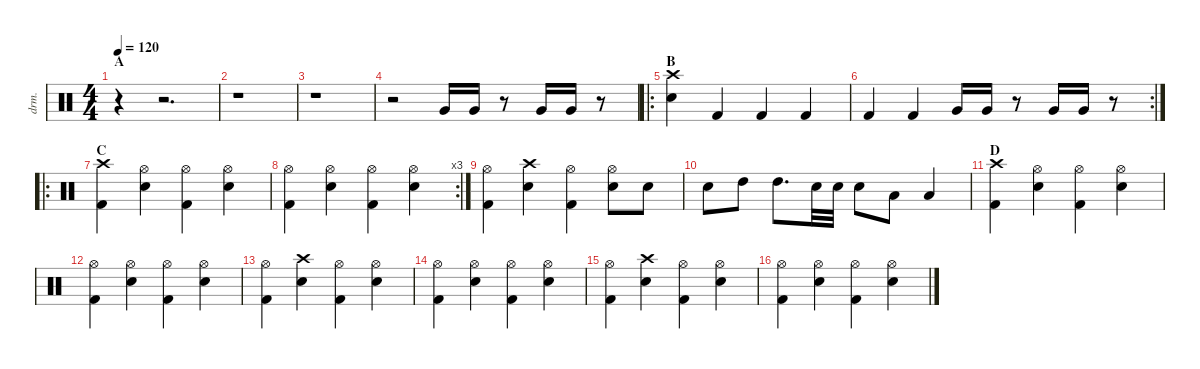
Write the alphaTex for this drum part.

\defaultSystemsLayout 4
\hideDynamics
\bracketExtendMode nobrackets
\track ("Drums" "drm.") {instrument percussion}
\staff {score}
\articulation defaults
\ts (4 4)
\section ("" "A")
\tempo 120
\clef neutral
\ks c
r.4{dy f} r.2{d} |
r.1 |
r.1 |
r.2 "Very Low Tom (hit)".16 "Very Low Tom (hit)".16 r.8 "Very Low Tom (hit)".16 "Very Low Tom (hit)".16 r.8 |
\ro
\section ("" "B")
("Crash high (hit)" "Snare (hit) 2").4 "Kick (hit) 2".4 "Kick (hit) 2".4 "Kick (hit) 2".4 |
\rc 2 "Kick (hit) 2".4 "Kick (hit) 2".4 "Very Low Tom (hit)".16 "Very Low Tom (hit)".16
r.8 "Very Low Tom (hit)".16 "Very Low Tom (hit)".16 r.8 |
\ro
\section ("" "C")
("Crash high (hit)" "Kick (hit) 2").4 ("Hi-Hat (open)" "Snare (hit) 2").4 ("Hi-Hat (open)" "Kick (hit) 2").4 ("Hi-Hat (open)" "Snare (hit) 2").4 |
\rc 3
("Hi-Hat (open)" "Kick (hit) 2").4 ("Hi-Hat (open)" "Snare (hit) 2").4 ("Hi-Hat (open)" "Kick (hit) 2").4 ("Hi-Hat (open)" "Snare (hit) 2").4 |
("Hi-Hat (open)" "Kick (hit) 2").4 ("Crash high (hit)" "Snare (hit) 2").4 ("Hi-Hat (open)" "Kick (hit) 2").4 ("Hi-Hat (open)" "Snare (hit) 2").8 "Snare (hit) 2".8 |
"Snare (hit) 2".8 "High Tom (hit)".8 "High Tom (hit)".8{d} "Snare (hit) 2".32 "Snare (hit) 2".32 "Snare (hit) 2".8 "Low Floor Tom (hit)".8 "Low Floor Tom (hit)".4 |
\section ("" "D")
("Crash high (hit)" "Kick (hit) 2").4 ("Hi-Hat (open)" "Snare (hit) 2").4 ("Hi-Hat (open)" "Kick (hit) 2").4 ("Hi-Hat (open)" "Snare (hit) 2").4 |
("Hi-Hat (open)" "Kick (hit) 2").4 ("Hi-Hat (open)" "Snare (hit) 2").4 ("Hi-Hat (open)" "Kick (hit) 2").4 ("Hi-Hat (open)" "Snare (hit) 2").4 |
("Hi-Hat (open)" "Kick (hit) 2").4 ("Crash high (hit)" "Snare (hit) 2").4 ("Hi-Hat (open)" "Kick (hit) 2").4 ("Hi-Hat (open)" "Snare (hit) 2").4 |
("Hi-Hat (open)" "Kick (hit) 2").4 ("Hi-Hat (open)" "Snare (hit) 2").4 ("Hi-Hat (open)" "Kick (hit) 2").4 ("Hi-Hat (open)" "Snare (hit) 2").4 |
("Hi-Hat (open)" "Kick (hit) 2").4 ("Crash high (hit)" "Snare (hit) 2").4 ("Hi-Hat (open)" "Kick (hit) 2").4 ("Hi-Hat (open)" "Snare (hit) 2").4 |
("Hi-Hat (open)" "Kick (hit) 2").4 ("Hi-Hat (open)" "Snare (hit) 2").4 ("Hi-Hat (open)" "Kick (hit) 2").4 ("Hi-Hat (open)" "Snare (hit) 2").4
